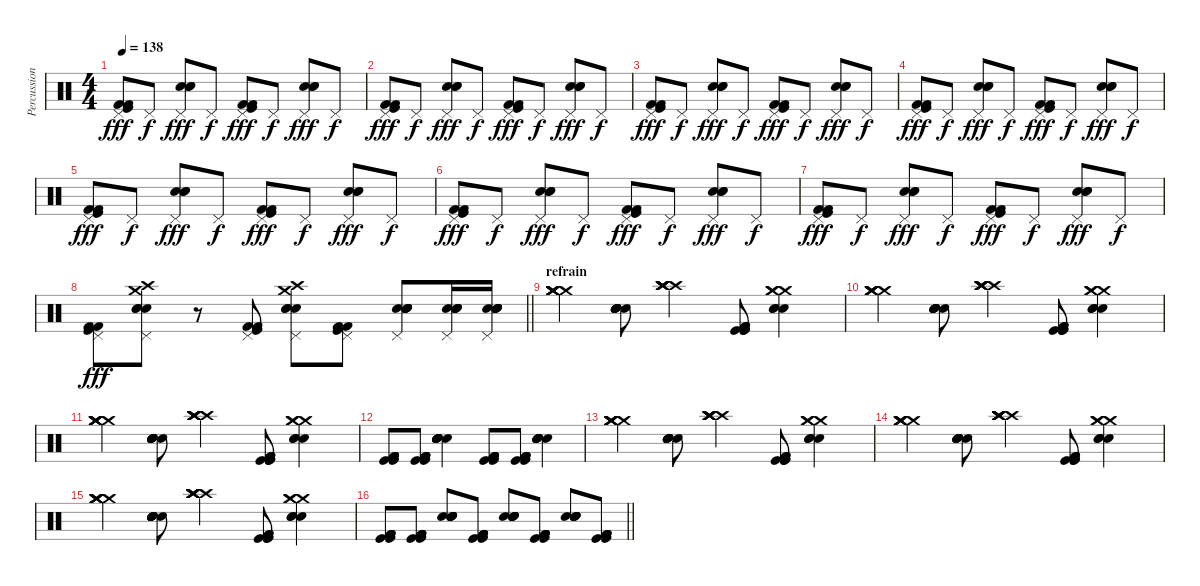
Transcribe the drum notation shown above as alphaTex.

\track ("Percussion" "Percussion") {instrument percussion}
\staff {score}
\articulation defaults
\ts (4 4)
\tempo 138
\clef neutral
\ks c
("Pedal Hi-Hat (hit)" "Kick (hit) 2" "Kick (hit)" "Kick (hit) 2").8{dy fff} "Pedal Hi-Hat (hit)".8{dy f} ("Pedal Hi-Hat (hit)" "Electric Snare (hit)" "Snare (hit) 2" "Electric Snare (hit)").8{dy fff} "Pedal Hi-Hat (hit)".8{dy f} ("Pedal Hi-Hat (hit)" "Kick (hit) 2" "Kick (hit)" "Kick (hit) 2").8{dy fff} "Pedal Hi-Hat (hit)".8{dy f} ("Pedal Hi-Hat (hit)" "Electric Snare (hit)" "Snare (hit) 2" "Electric Snare (hit)").8{dy fff} "Pedal Hi-Hat (hit)".8{dy f} |
("Pedal Hi-Hat (hit)" "Kick (hit) 2" "Kick (hit)" "Kick (hit) 2").8{dy fff} "Pedal Hi-Hat (hit)".8{dy f} ("Pedal Hi-Hat (hit)" "Electric Snare (hit)" "Snare (hit) 2" "Electric Snare (hit)").8{dy fff} "Pedal Hi-Hat (hit)".8{dy f} ("Pedal Hi-Hat (hit)" "Kick (hit) 2" "Kick (hit)" "Kick (hit) 2").8{dy fff} "Pedal Hi-Hat (hit)".8{dy f} ("Pedal Hi-Hat (hit)" "Electric Snare (hit)" "Snare (hit) 2" "Electric Snare (hit)").8{dy fff} "Pedal Hi-Hat (hit)".8{dy f} |
("Pedal Hi-Hat (hit)" "Kick (hit) 2" "Kick (hit)" "Kick (hit) 2").8{dy fff} "Pedal Hi-Hat (hit)".8{dy f} ("Pedal Hi-Hat (hit)" "Electric Snare (hit)" "Snare (hit) 2" "Electric Snare (hit)").8{dy fff} "Pedal Hi-Hat (hit)".8{dy f} ("Pedal Hi-Hat (hit)" "Kick (hit) 2" "Kick (hit)" "Kick (hit) 2").8{dy fff} "Pedal Hi-Hat (hit)".8{dy f} ("Pedal Hi-Hat (hit)" "Electric Snare (hit)" "Snare (hit) 2" "Electric Snare (hit)").8{dy fff} "Pedal Hi-Hat (hit)".8{dy f} |
("Pedal Hi-Hat (hit)" "Kick (hit) 2" "Kick (hit)" "Kick (hit) 2").8{dy fff} "Pedal Hi-Hat (hit)".8{dy f} ("Pedal Hi-Hat (hit)" "Electric Snare (hit)" "Snare (hit) 2" "Electric Snare (hit)").8{dy fff} "Pedal Hi-Hat (hit)".8{dy f} ("Pedal Hi-Hat (hit)" "Kick (hit) 2" "Kick (hit)" "Kick (hit) 2").8{dy fff} "Pedal Hi-Hat (hit)".8{dy f} ("Pedal Hi-Hat (hit)" "Electric Snare (hit)" "Snare (hit) 2" "Electric Snare (hit)").8{dy fff} "Pedal Hi-Hat (hit)".8{dy f} |
("Pedal Hi-Hat (hit)" "Kick (hit) 2" "Kick (hit)" "Kick (hit) 2").8{dy fff} "Pedal Hi-Hat (hit)".8{dy f} ("Pedal Hi-Hat (hit)" "Electric Snare (hit)" "Snare (hit) 2" "Electric Snare (hit)").8{dy fff} "Pedal Hi-Hat (hit)".8{dy f} ("Pedal Hi-Hat (hit)" "Kick (hit) 2" "Kick (hit)" "Kick (hit) 2").8{dy fff} "Pedal Hi-Hat (hit)".8{dy f} ("Pedal Hi-Hat (hit)" "Electric Snare (hit)" "Snare (hit) 2" "Electric Snare (hit)").8{dy fff} "Pedal Hi-Hat (hit)".8{dy f} |
("Pedal Hi-Hat (hit)" "Kick (hit) 2" "Kick (hit)" "Kick (hit) 2").8{dy fff} "Pedal Hi-Hat (hit)".8{dy f} ("Pedal Hi-Hat (hit)" "Electric Snare (hit)" "Snare (hit) 2" "Electric Snare (hit)").8{dy fff} "Pedal Hi-Hat (hit)".8{dy f} ("Pedal Hi-Hat (hit)" "Kick (hit) 2" "Kick (hit)" "Kick (hit) 2").8{dy fff} "Pedal Hi-Hat (hit)".8{dy f} ("Pedal Hi-Hat (hit)" "Electric Snare (hit)" "Snare (hit) 2" "Electric Snare (hit)").8{dy fff} "Pedal Hi-Hat (hit)".8{dy f} |
("Pedal Hi-Hat (hit)" "Kick (hit) 2" "Kick (hit)" "Kick (hit) 2").8{dy fff} "Pedal Hi-Hat (hit)".8{dy f} ("Pedal Hi-Hat (hit)" "Electric Snare (hit)" "Snare (hit) 2" "Electric Snare (hit)").8{dy fff} "Pedal Hi-Hat (hit)".8{dy f} ("Pedal Hi-Hat (hit)" "Kick (hit) 2" "Kick (hit)" "Kick (hit) 2").8{dy fff} "Pedal Hi-Hat (hit)".8{dy f} ("Pedal Hi-Hat (hit)" "Electric Snare (hit)" "Snare (hit) 2" "Electric Snare (hit)").8{dy fff} "Pedal Hi-Hat (hit)".8{dy f} |
\barLineRight lightlight
("Pedal Hi-Hat (hit)" "Kick (hit) 2" "Kick (hit)" "Kick (hit) 2").8{dy fff} ("Pedal Hi-Hat (hit)" "Crash high (hit)" "Crash medium (hit)" "Electric Snare (hit)" "Snare (hit) 2" "Electric Snare (hit)").8 r.8 ("Pedal Hi-Hat (hit)" "Kick (hit) 2" "Kick (hit)" "Kick (hit) 2").8 ("Pedal Hi-Hat (hit)" "Crash high (hit)" "Crash medium (hit)" "Electric Snare (hit)" "Snare (hit) 2" "Electric Snare (hit)").8 ("Pedal Hi-Hat (hit)" "Kick (hit) 2" "Kick (hit)" "Kick (hit) 2").8 ("Pedal Hi-Hat (hit)" "Snare (hit) 2" "Electric Snare (hit)" "Electric Snare (hit)" "Snare (hit) 2" "Electric Snare (hit)").8 ("Pedal Hi-Hat (hit)" "Snare (hit) 2" "Electric Snare (hit)" "Electric Snare (hit)" "Snare (hit) 2" "Electric Snare (hit)").16 ("Pedal Hi-Hat (hit)" "Snare (hit) 2" "Electric Snare (hit)" "Electric Snare (hit)" "Snare (hit) 2" "Electric Snare (hit)").16 |
\section ("" "refrain")
("Crash medium (hit)" "Crash medium (hit)" "Crash medium (hit)" "Crash medium (hit)" "Crash medium (hit)" "Crash medium (hit)").4 ("Electric Snare (hit)" "Snare (hit) 2" "Electric Snare (hit)" "Electric Snare (hit)" "Snare (hit) 2" "Electric Snare (hit)").8 ("Crash high (hit)" "Crash high (hit)" "Crash high (hit)" "Crash high (hit)" "Crash high (hit)" "Crash high (hit)").4 ("Kick (hit)" "Kick (hit) 2" "Kick (hit)" "Kick (hit) 2" "Kick (hit) 2" "Kick (hit)").8 ("Crash medium (hit)" "Crash medium (hit)" "Crash medium (hit)" "Electric Snare (hit)" "Electric Snare (hit)" "Electric Snare (hit)").4 |
("Crash medium (hit)" "Crash medium (hit)" "Crash medium (hit)" "Crash medium (hit)" "Crash medium (hit)" "Crash medium (hit)").4 ("Electric Snare (hit)" "Snare (hit) 2" "Electric Snare (hit)" "Electric Snare (hit)" "Snare (hit) 2" "Electric Snare (hit)").8 ("Crash high (hit)" "Crash high (hit)" "Crash high (hit)" "Crash high (hit)" "Crash high (hit)" "Crash high (hit)").4 ("Kick (hit)" "Kick (hit) 2" "Kick (hit)" "Kick (hit) 2" "Kick (hit) 2" "Kick (hit)").8 ("Crash medium (hit)" "Crash medium (hit)" "Crash medium (hit)" "Electric Snare (hit)" "Electric Snare (hit)" "Electric Snare (hit)").4 |
("Crash medium (hit)" "Crash medium (hit)" "Crash medium (hit)" "Crash medium (hit)" "Crash medium (hit)" "Crash medium (hit)").4 ("Electric Snare (hit)" "Snare (hit) 2" "Electric Snare (hit)" "Electric Snare (hit)" "Snare (hit) 2" "Electric Snare (hit)").8 ("Crash high (hit)" "Crash high (hit)" "Crash high (hit)" "Crash high (hit)" "Crash high (hit)" "Crash high (hit)").4 ("Kick (hit)" "Kick (hit) 2" "Kick (hit)" "Kick (hit) 2" "Kick (hit) 2" "Kick (hit)").8 ("Crash medium (hit)" "Crash medium (hit)" "Crash medium (hit)" "Electric Snare (hit)" "Electric Snare (hit)" "Electric Snare (hit)").4 |
("Kick (hit) 2" "Kick (hit)" "Kick (hit) 2" "Kick (hit) 2" "Kick (hit)" "Kick (hit) 2").8 ("Kick (hit) 2" "Kick (hit)" "Kick (hit) 2" "Kick (hit) 2" "Kick (hit)" "Kick (hit) 2").8 ("Electric Snare (hit)" "Snare (hit) 2" "Electric Snare (hit)" "Electric Snare (hit)" "Snare (hit) 2" "Electric Snare (hit)").4 ("Kick (hit) 2" "Kick (hit)" "Kick (hit) 2" "Kick (hit) 2" "Kick (hit)" "Kick (hit) 2").8 ("Kick (hit) 2" "Kick (hit)" "Kick (hit) 2" "Kick (hit) 2" "Kick (hit)" "Kick (hit) 2").8 ("Electric Snare (hit)" "Snare (hit) 2" "Electric Snare (hit)" "Electric Snare (hit)" "Snare (hit) 2" "Electric Snare (hit)").4 |
("Crash medium (hit)" "Crash medium (hit)" "Crash medium (hit)" "Crash medium (hit)" "Crash medium (hit)" "Crash medium (hit)").4 ("Electric Snare (hit)" "Snare (hit) 2" "Electric Snare (hit)" "Electric Snare (hit)" "Snare (hit) 2" "Electric Snare (hit)").8 ("Crash high (hit)" "Crash high (hit)" "Crash high (hit)" "Crash high (hit)" "Crash high (hit)" "Crash high (hit)").4 ("Kick (hit)" "Kick (hit) 2" "Kick (hit)" "Kick (hit) 2" "Kick (hit) 2" "Kick (hit)").8 ("Crash medium (hit)" "Crash medium (hit)" "Crash medium (hit)" "Electric Snare (hit)" "Electric Snare (hit)" "Electric Snare (hit)").4 |
("Crash medium (hit)" "Crash medium (hit)" "Crash medium (hit)" "Crash medium (hit)" "Crash medium (hit)" "Crash medium (hit)").4 ("Electric Snare (hit)" "Snare (hit) 2" "Electric Snare (hit)" "Electric Snare (hit)" "Snare (hit) 2" "Electric Snare (hit)").8 ("Crash high (hit)" "Crash high (hit)" "Crash high (hit)" "Crash high (hit)" "Crash high (hit)" "Crash high (hit)").4 ("Kick (hit)" "Kick (hit) 2" "Kick (hit)" "Kick (hit) 2" "Kick (hit) 2" "Kick (hit)").8 ("Crash medium (hit)" "Crash medium (hit)" "Crash medium (hit)" "Electric Snare (hit)" "Electric Snare (hit)" "Electric Snare (hit)").4 |
("Crash medium (hit)" "Crash medium (hit)" "Crash medium (hit)" "Crash medium (hit)" "Crash medium (hit)" "Crash medium (hit)").4 ("Electric Snare (hit)" "Snare (hit) 2" "Electric Snare (hit)" "Electric Snare (hit)" "Snare (hit) 2" "Electric Snare (hit)").8 ("Crash high (hit)" "Crash high (hit)" "Crash high (hit)" "Crash high (hit)" "Crash high (hit)" "Crash high (hit)").4 ("Kick (hit)" "Kick (hit) 2" "Kick (hit)" "Kick (hit) 2" "Kick (hit) 2" "Kick (hit)").8 ("Crash medium (hit)" "Crash medium (hit)" "Crash medium (hit)" "Electric Snare (hit)" "Electric Snare (hit)" "Electric Snare (hit)").4 |
\barLineRight lightlight
("Kick (hit) 2" "Kick (hit)" "Kick (hit) 2" "Kick (hit) 2" "Kick (hit)" "Kick (hit) 2").8 ("Kick (hit) 2" "Kick (hit)" "Kick (hit) 2" "Kick (hit) 2" "Kick (hit)" "Kick (hit) 2").8 ("Electric Snare (hit)" "Snare (hit) 2" "Electric Snare (hit)" "Electric Snare (hit)" "Snare (hit) 2" "Electric Snare (hit)").8 ("Kick (hit) 2" "Kick (hit)" "Kick (hit) 2" "Kick (hit) 2" "Kick (hit)" "Kick (hit) 2").8 ("Electric Snare (hit)" "Snare (hit) 2" "Electric Snare (hit)" "Electric Snare (hit)" "Snare (hit) 2" "Electric Snare (hit)").8 ("Kick (hit) 2" "Kick (hit)" "Kick (hit) 2" "Kick (hit) 2" "Kick (hit)" "Kick (hit) 2").8 ("Electric Snare (hit)" "Snare (hit) 2" "Electric Snare (hit)" "Electric Snare (hit)" "Snare (hit) 2" "Electric Snare (hit)").8 ("Kick (hit) 2" "Kick (hit)" "Kick (hit) 2" "Kick (hit) 2" "Kick (hit)" "Kick (hit) 2").8
